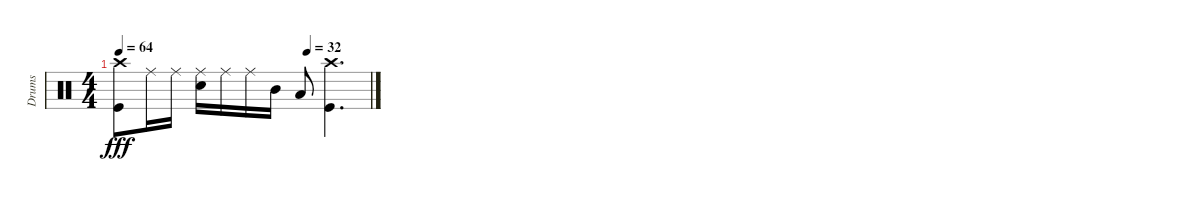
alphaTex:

\track ("Drums" "Drums") {instrument percussion}
\staff {score}
\articulation defaults
\ts (4 4)
\tempo 64
\tempo (32 0.75)
\clef neutral
\ks c
("Crash high (hit)" "Kick (hit)").8{dy fff} "Ride (middle)".16 "Ride (middle)".16 ("Ride (middle)" "Snare (hit) 2").16 "Ride (middle)".16 "Ride (middle)".16 "Mid Tom (hit)".16 "Low Tom (hit)".8 ("Crash high (hit)" "Kick (hit)").4{d}
